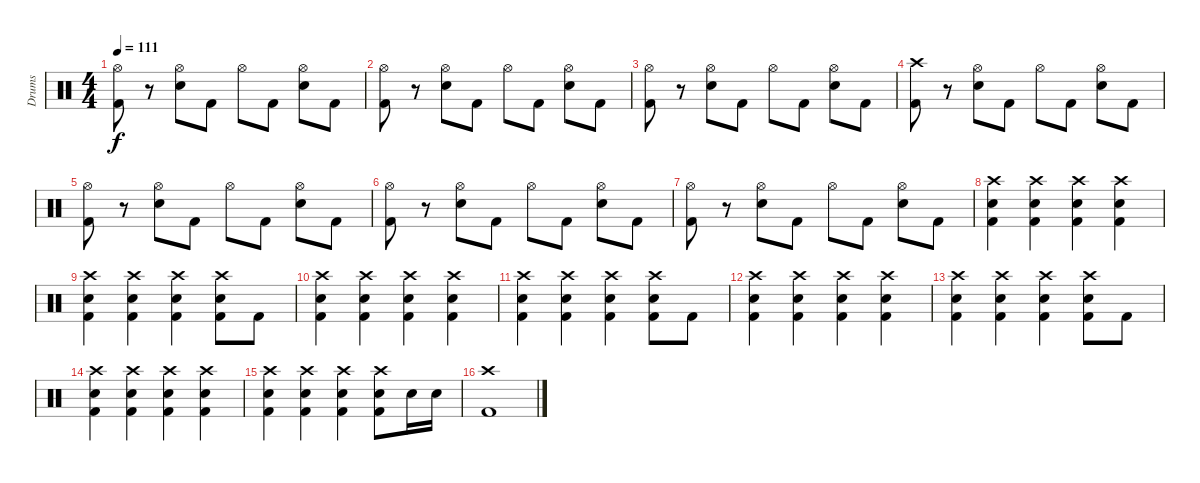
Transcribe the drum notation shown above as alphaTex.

\track ("Drums" "Drums") {instrument percussion}
\staff {score}
\articulation defaults
\ts (4 4)
\tempo 111
\clef neutral
\ks c
("Hi-Hat (open)" "Kick (hit) 2").8{dy f} r.8 ("Hi-Hat (open)" "Snare (hit) 2").8 "Kick (hit) 2".8 "Hi-Hat (open)".8 "Kick (hit) 2".8 ("Hi-Hat (open)" "Snare (hit) 2").8 "Kick (hit) 2".8 |
("Hi-Hat (open)" "Kick (hit) 2").8 r.8 ("Hi-Hat (open)" "Snare (hit) 2").8 "Kick (hit) 2".8 "Hi-Hat (open)".8 "Kick (hit) 2".8 ("Hi-Hat (open)" "Snare (hit) 2").8 "Kick (hit) 2".8 |
("Hi-Hat (open)" "Kick (hit) 2").8 r.8 ("Hi-Hat (open)" "Snare (hit) 2").8 "Kick (hit) 2".8 "Hi-Hat (open)".8 "Kick (hit) 2".8 ("Hi-Hat (open)" "Snare (hit) 2").8 "Kick (hit) 2".8 |
("Crash high (hit)" "Kick (hit) 2").8 r.8 ("Hi-Hat (open)" "Snare (hit) 2").8 "Kick (hit) 2".8 "Hi-Hat (open)".8 "Kick (hit) 2".8 ("Hi-Hat (open)" "Snare (hit) 2").8 "Kick (hit) 2".8 |
("Hi-Hat (open)" "Kick (hit) 2").8 r.8 ("Hi-Hat (open)" "Snare (hit) 2").8 "Kick (hit) 2".8 "Hi-Hat (open)".8 "Kick (hit) 2".8 ("Hi-Hat (open)" "Snare (hit) 2").8 "Kick (hit) 2".8 |
("Hi-Hat (open)" "Kick (hit) 2").8 r.8 ("Hi-Hat (open)" "Snare (hit) 2").8 "Kick (hit) 2".8 "Hi-Hat (open)".8 "Kick (hit) 2".8 ("Hi-Hat (open)" "Snare (hit) 2").8 "Kick (hit) 2".8 |
("Hi-Hat (open)" "Kick (hit) 2").8 r.8 ("Hi-Hat (open)" "Snare (hit) 2").8 "Kick (hit) 2".8 "Hi-Hat (open)".8 "Kick (hit) 2".8 ("Hi-Hat (open)" "Snare (hit) 2").8 "Kick (hit) 2".8 |
("Crash high (hit)" "Snare (hit) 2" "Kick (hit) 2").4 ("Crash high (hit)" "Snare (hit) 2" "Kick (hit) 2").4 ("Crash high (hit)" "Snare (hit) 2" "Kick (hit) 2").4 ("Crash high (hit)" "Snare (hit) 2" "Kick (hit) 2").4 |
("Crash high (hit)" "Snare (hit) 2" "Kick (hit) 2").4 ("Crash high (hit)" "Snare (hit) 2" "Kick (hit) 2").4 ("Crash high (hit)" "Snare (hit) 2" "Kick (hit) 2").4 ("Crash high (hit)" "Snare (hit) 2" "Kick (hit) 2").8 "Kick (hit) 2".8 |
("Crash high (hit)" "Snare (hit) 2" "Kick (hit) 2").4 ("Crash high (hit)" "Snare (hit) 2" "Kick (hit) 2").4 ("Crash high (hit)" "Snare (hit) 2" "Kick (hit) 2").4 ("Crash high (hit)" "Snare (hit) 2" "Kick (hit) 2").4 |
("Crash high (hit)" "Snare (hit) 2" "Kick (hit) 2").4 ("Crash high (hit)" "Snare (hit) 2" "Kick (hit) 2").4 ("Crash high (hit)" "Snare (hit) 2" "Kick (hit) 2").4 ("Crash high (hit)" "Snare (hit) 2" "Kick (hit) 2").8 "Kick (hit) 2".8 |
("Crash high (hit)" "Snare (hit) 2" "Kick (hit) 2").4 ("Crash high (hit)" "Snare (hit) 2" "Kick (hit) 2").4 ("Crash high (hit)" "Snare (hit) 2" "Kick (hit) 2").4 ("Crash high (hit)" "Snare (hit) 2" "Kick (hit) 2").4 |
("Crash high (hit)" "Snare (hit) 2" "Kick (hit) 2").4 ("Crash high (hit)" "Snare (hit) 2" "Kick (hit) 2").4 ("Crash high (hit)" "Snare (hit) 2" "Kick (hit) 2").4 ("Crash high (hit)" "Snare (hit) 2" "Kick (hit) 2").8 "Kick (hit) 2".8 |
("Crash high (hit)" "Snare (hit) 2" "Kick (hit) 2").4 ("Crash high (hit)" "Snare (hit) 2" "Kick (hit) 2").4 ("Crash high (hit)" "Snare (hit) 2" "Kick (hit) 2").4 ("Crash high (hit)" "Snare (hit) 2" "Kick (hit) 2").4 |
("Crash high (hit)" "Snare (hit) 2" "Kick (hit) 2").4 ("Crash high (hit)" "Snare (hit) 2" "Kick (hit) 2").4 ("Crash high (hit)" "Snare (hit) 2" "Kick (hit) 2").4 ("Crash high (hit)" "Snare (hit) 2" "Kick (hit) 2").8 "Snare (hit) 2".16 "Snare (hit) 2".16 |
("Crash high (hit)" "Kick (hit) 2").1
